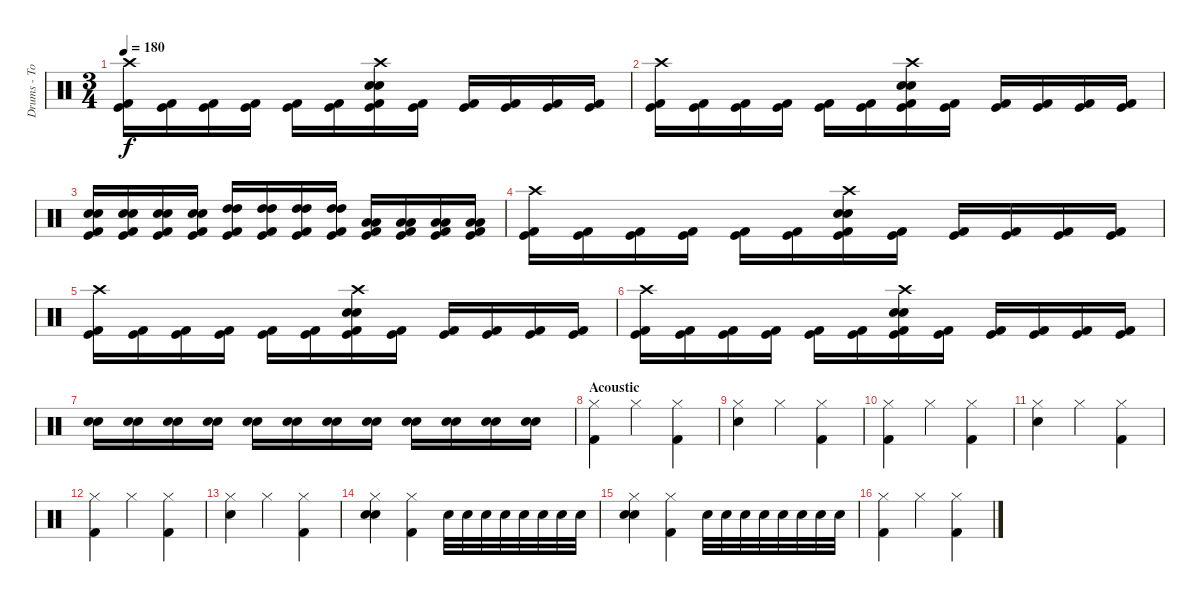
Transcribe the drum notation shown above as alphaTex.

\track ("Drums - Tomas" "Drums - To") {instrument percussion}
\staff {score}
\articulation defaults
\ts (3 4)
\tempo 180
\clef neutral
\ks c
("Crash high (hit)" "Kick (hit)" "Kick (hit) 2").16{dy f} ("Kick (hit)" "Kick (hit) 2").16 ("Kick (hit)" "Kick (hit) 2").16 ("Kick (hit)" "Kick (hit) 2").16 ("Kick (hit)" "Kick (hit) 2").16 ("Kick (hit)" "Kick (hit) 2").16 ("Crash high (hit)" "Electric Snare (hit)" "Electric Snare (hit)" "Kick (hit)" "Kick (hit) 2").16 ("Kick (hit)" "Kick (hit) 2").16 ("Kick (hit)" "Kick (hit) 2").16 ("Kick (hit)" "Kick (hit) 2").16 ("Kick (hit)" "Kick (hit) 2").16 ("Kick (hit)" "Kick (hit) 2").16 |
("Crash high (hit)" "Kick (hit)" "Kick (hit) 2").16 ("Kick (hit)" "Kick (hit) 2").16 ("Kick (hit)" "Kick (hit) 2").16 ("Kick (hit)" "Kick (hit) 2").16 ("Kick (hit)" "Kick (hit) 2").16 ("Kick (hit)" "Kick (hit) 2").16 ("Crash high (hit)" "Electric Snare (hit)" "Electric Snare (hit)" "Kick (hit)" "Kick (hit) 2").16 ("Kick (hit)" "Kick (hit) 2").16 ("Kick (hit)" "Kick (hit) 2").16 ("Kick (hit)" "Kick (hit) 2").16 ("Kick (hit)" "Kick (hit) 2").16 ("Kick (hit)" "Kick (hit) 2").16 |
("Electric Snare (hit)" "Electric Snare (hit)" "Kick (hit)" "Kick (hit) 2").16 ("Electric Snare (hit)" "Electric Snare (hit)" "Kick (hit)" "Kick (hit) 2").16 ("Electric Snare (hit)" "Electric Snare (hit)" "Kick (hit)" "Kick (hit) 2").16 ("Electric Snare (hit)" "Electric Snare (hit)" "Kick (hit)" "Kick (hit) 2").16 ("High Tom (hit)" "High Tom (hit)" "Kick (hit)" "Kick (hit) 2").16 ("High Tom (hit)" "High Tom (hit)" "Kick (hit)" "Kick (hit) 2").16 ("High Tom (hit)" "High Tom (hit)" "Kick (hit)" "Kick (hit) 2").16 ("High Tom (hit)" "High Tom (hit)" "Kick (hit)" "Kick (hit) 2").16 ("Low Tom (hit)" "Low Tom (hit)" "Kick (hit)" "Kick (hit) 2").16 ("Low Tom (hit)" "Low Tom (hit)" "Kick (hit)" "Kick (hit) 2").16 ("Low Tom (hit)" "Low Tom (hit)" "Kick (hit)" "Kick (hit) 2").16 ("Low Tom (hit)" "Low Tom (hit)" "Kick (hit)" "Kick (hit) 2").16 |
("Crash high (hit)" "Kick (hit)" "Kick (hit) 2").16 ("Kick (hit)" "Kick (hit) 2").16 ("Kick (hit)" "Kick (hit) 2").16 ("Kick (hit)" "Kick (hit) 2").16 ("Kick (hit)" "Kick (hit) 2").16 ("Kick (hit)" "Kick (hit) 2").16 ("Crash high (hit)" "Electric Snare (hit)" "Electric Snare (hit)" "Kick (hit)" "Kick (hit) 2").16 ("Kick (hit)" "Kick (hit) 2").16 ("Kick (hit)" "Kick (hit) 2").16 ("Kick (hit)" "Kick (hit) 2").16 ("Kick (hit)" "Kick (hit) 2").16 ("Kick (hit)" "Kick (hit) 2").16 |
("Crash high (hit)" "Kick (hit)" "Kick (hit) 2").16 ("Kick (hit)" "Kick (hit) 2").16 ("Kick (hit)" "Kick (hit) 2").16 ("Kick (hit)" "Kick (hit) 2").16 ("Kick (hit)" "Kick (hit) 2").16 ("Kick (hit)" "Kick (hit) 2").16 ("Crash high (hit)" "Electric Snare (hit)" "Electric Snare (hit)" "Kick (hit)" "Kick (hit) 2").16 ("Kick (hit)" "Kick (hit) 2").16 ("Kick (hit)" "Kick (hit) 2").16 ("Kick (hit)" "Kick (hit) 2").16 ("Kick (hit)" "Kick (hit) 2").16 ("Kick (hit)" "Kick (hit) 2").16 |
("Crash high (hit)" "Kick (hit)" "Kick (hit) 2").16 ("Kick (hit)" "Kick (hit) 2").16 ("Kick (hit)" "Kick (hit) 2").16 ("Kick (hit)" "Kick (hit) 2").16 ("Kick (hit)" "Kick (hit) 2").16 ("Kick (hit)" "Kick (hit) 2").16 ("Crash high (hit)" "Electric Snare (hit)" "Electric Snare (hit)" "Kick (hit)" "Kick (hit) 2").16 ("Kick (hit)" "Kick (hit) 2").16 ("Kick (hit)" "Kick (hit) 2").16 ("Kick (hit)" "Kick (hit) 2").16 ("Kick (hit)" "Kick (hit) 2").16 ("Kick (hit)" "Kick (hit) 2").16 |
("Electric Snare (hit)" "Electric Snare (hit)").16 ("Electric Snare (hit)" "Electric Snare (hit)").16 ("Electric Snare (hit)" "Electric Snare (hit)").16 ("Electric Snare (hit)" "Electric Snare (hit)").16 ("Electric Snare (hit)" "Electric Snare (hit)").16 ("Electric Snare (hit)" "Electric Snare (hit)").16 ("Electric Snare (hit)" "Electric Snare (hit)").16 ("Electric Snare (hit)" "Electric Snare (hit)").16 ("Electric Snare (hit)" "Electric Snare (hit)").16 ("Electric Snare (hit)" "Electric Snare (hit)").16 ("Electric Snare (hit)" "Electric Snare (hit)").16 ("Electric Snare (hit)" "Electric Snare (hit)").16 |
\section ("" "Acoustic")
("Hi-Hat (closed)" "Kick (hit) 2").4 "Hi-Hat (closed)".4 ("Hi-Hat (closed)" "Kick (hit) 2").4 |
("Hi-Hat (closed)" "Electric Snare (hit)").4 "Hi-Hat (closed)".4 ("Hi-Hat (closed)" "Kick (hit) 2").4 |
("Hi-Hat (closed)" "Kick (hit) 2").4 "Hi-Hat (closed)".4 ("Hi-Hat (closed)" "Kick (hit) 2").4 |
("Hi-Hat (closed)" "Electric Snare (hit)").4 "Hi-Hat (closed)".4 ("Hi-Hat (closed)" "Kick (hit) 2").4 |
("Hi-Hat (closed)" "Kick (hit) 2").4 "Hi-Hat (closed)".4 ("Hi-Hat (closed)" "Kick (hit) 2").4 |
("Hi-Hat (closed)" "Electric Snare (hit)").4 "Hi-Hat (closed)".4 ("Hi-Hat (closed)" "Kick (hit) 2").4 |
("Hi-Hat (closed)" "Electric Snare (hit)" "Electric Snare (hit)").4 ("Hi-Hat (closed)" "Kick (hit) 2").4 "Electric Snare (hit)".32 "Electric Snare (hit)".32 "Electric Snare (hit)".32 "Electric Snare (hit)".32 "Electric Snare (hit)".32 "Electric Snare (hit)".32 "Electric Snare (hit)".32 "Electric Snare (hit)".32 |
("Hi-Hat (closed)" "Electric Snare (hit)" "Electric Snare (hit)").4 ("Hi-Hat (closed)" "Kick (hit) 2").4 "Electric Snare (hit)".32 "Electric Snare (hit)".32 "Electric Snare (hit)".32 "Electric Snare (hit)".32 "Electric Snare (hit)".32 "Electric Snare (hit)".32 "Electric Snare (hit)".32 "Electric Snare (hit)".32 |
("Hi-Hat (closed)" "Kick (hit) 2").4 "Hi-Hat (closed)".4 ("Hi-Hat (closed)" "Kick (hit) 2").4
